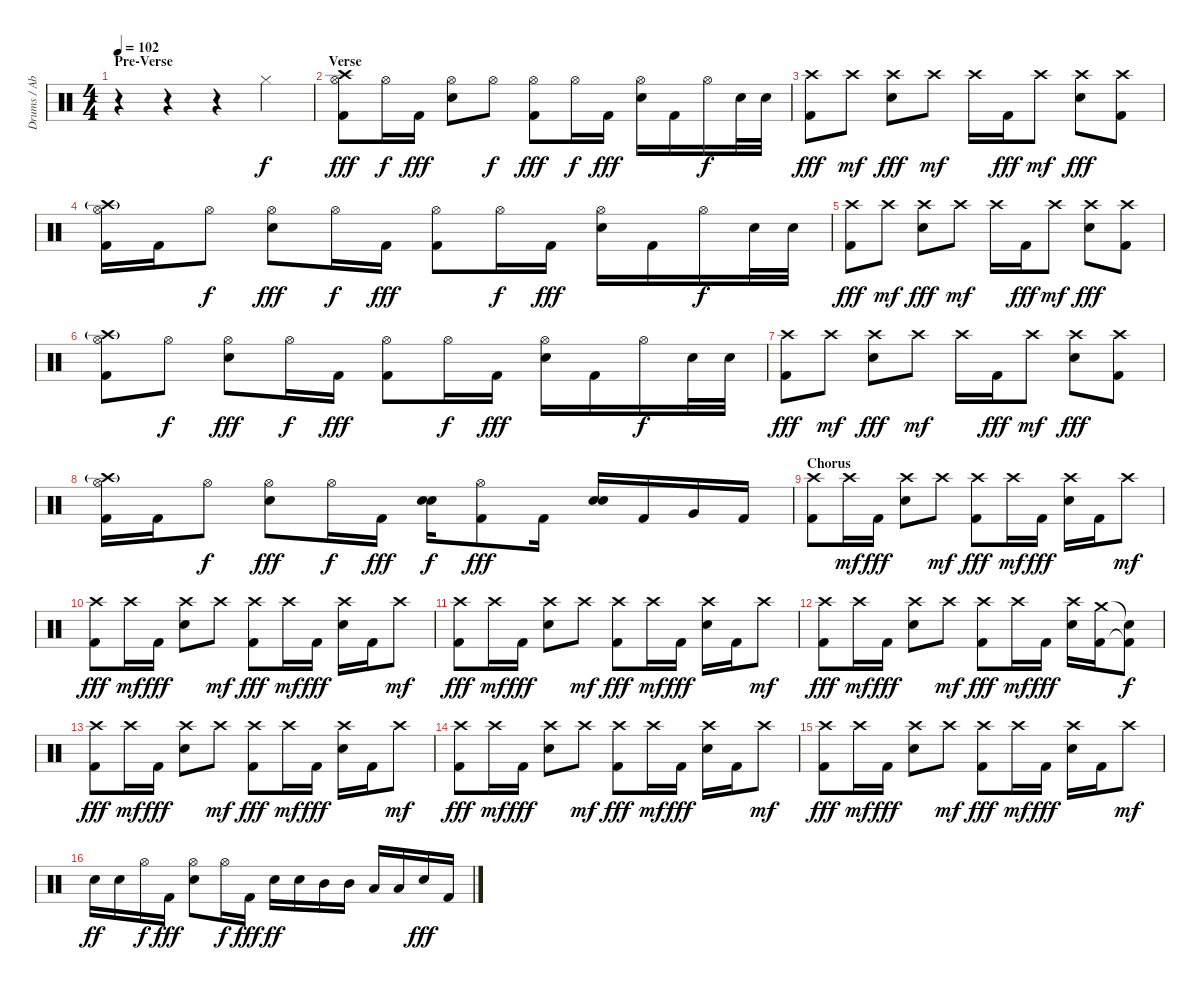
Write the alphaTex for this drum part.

\track ("Drums / Abe Cunningham" "Drums / Ab") {instrument percussion}
\staff {score}
\articulation defaults
\ts (4 4)
\section ("" "Pre-Verse")
\tempo 102
\clef neutral
\ks c
r.4{dy f} r.4 r.4 "Hi-Hat (closed)".4 |
\section ("" "Verse")
("Crash high (hit)" "Hi-Hat (open)" "Kick (hit) 2").8{dy fff} "Hi-Hat (open)".16{dy f} "Kick (hit) 2".16{dy fff} ("Hi-Hat (open)" "Electric Snare (hit)").8 "Hi-Hat (open)".8{dy f} ("Hi-Hat (open)" "Kick (hit) 2").8{dy fff} "Hi-Hat (open)".16{dy f} "Kick (hit) 2".16{dy fff} ("Hi-Hat (open)" "Electric Snare (hit)").16 "Kick (hit) 2".16 "Hi-Hat (open)".16{dy f} "Electric Snare (hit)".32 "Electric Snare (hit)".32 |
("Crash high (hit)" "Kick (hit) 2").8{dy fff} "Crash high (hit)".8{dy mf} ("Crash high (hit)" "Electric Snare (hit)").8{dy fff} "Crash high (hit)".8{dy mf} "Crash high (hit)".16 "Kick (hit) 2".16{dy fff} "Crash high (hit)".8{dy mf} ("Crash high (hit)" "Electric Snare (hit)").8{dy fff} ("Crash high (hit)" "Kick (hit) 2").8 |
("Crash high (hit)"{g} "Hi-Hat (open)" "Kick (hit) 2").16 "Kick (hit) 2".16 "Hi-Hat (open)".8{dy f} ("Hi-Hat (open)" "Electric Snare (hit)").8{dy fff} "Hi-Hat (open)".16{dy f} "Kick (hit) 2".16{dy fff} ("Hi-Hat (open)" "Kick (hit) 2").8 "Hi-Hat (open)".16{dy f} "Kick (hit) 2".16{dy fff} ("Hi-Hat (open)" "Electric Snare (hit)").16 "Kick (hit) 2".16 "Hi-Hat (open)".16{dy f} "Electric Snare (hit)".32 "Electric Snare (hit)".32 |
("Crash high (hit)" "Kick (hit) 2").8{dy fff} "Crash high (hit)".8{dy mf} ("Crash high (hit)" "Electric Snare (hit)").8{dy fff} "Crash high (hit)".8{dy mf} "Crash high (hit)".16 "Kick (hit) 2".16{dy fff} "Crash high (hit)".8{dy mf} ("Crash high (hit)" "Electric Snare (hit)").8{dy fff} ("Crash high (hit)" "Kick (hit) 2").8 |
("Crash high (hit)"{g} "Hi-Hat (open)" "Kick (hit) 2").8 "Hi-Hat (open)".8{dy f} ("Hi-Hat (open)" "Electric Snare (hit)").8{dy fff} "Hi-Hat (open)".16{dy f} "Kick (hit) 2".16{dy fff} ("Hi-Hat (open)" "Kick (hit) 2").8 "Hi-Hat (open)".16{dy f} "Kick (hit) 2".16{dy fff} ("Hi-Hat (open)" "Electric Snare (hit)").16 "Kick (hit) 2".16 "Hi-Hat (open)".16{dy f} "Electric Snare (hit)".32 "Electric Snare (hit)".32 |
("Crash high (hit)" "Kick (hit) 2").8{dy fff} "Crash high (hit)".8{dy mf} ("Crash high (hit)" "Electric Snare (hit)").8{dy fff} "Crash high (hit)".8{dy mf} "Crash high (hit)".16 "Kick (hit) 2".16{dy fff} "Crash high (hit)".8{dy mf} ("Crash high (hit)" "Electric Snare (hit)").8{dy fff} ("Crash high (hit)" "Kick (hit) 2").8 |
("Crash high (hit)"{g} "Hi-Hat (open)" "Kick (hit) 2").16 "Kick (hit) 2".16 "Hi-Hat (open)".8{dy f} ("Hi-Hat (open)" "Electric Snare (hit)").8{dy fff} "Hi-Hat (open)".16{dy f} "Kick (hit) 2".16{dy fff} ("Electric Snare (hit)" "Electric Snare (hit)").16{dy f} ("Hi-Hat (open)" "Kick (hit) 2").8{dy fff} "Kick (hit) 2".16 ("Electric Snare (hit)" "Electric Snare (hit)").16 "Kick (hit) 2".16 "Very Low Tom (hit)".16 "Kick (hit) 2".16 |
\section ("" "Chorus")
("Crash high (hit)" "Kick (hit) 2").8 "Crash high (hit)".16{dy mf} "Kick (hit) 2".16{dy fff} ("Crash high (hit)" "Electric Snare (hit)").8 "Crash high (hit)".8{dy mf} ("Crash high (hit)" "Kick (hit) 2").8{dy fff} "Crash high (hit)".16{dy mf} "Kick (hit) 2".16{dy fff} ("Crash high (hit)" "Electric Snare (hit)").16 "Kick (hit) 2".16 "Crash high (hit)".8{dy mf} |
("Crash high (hit)" "Kick (hit) 2").8{dy fff} "Crash high (hit)".16{dy mf} "Kick (hit) 2".16{dy fff} ("Crash high (hit)" "Electric Snare (hit)").8 "Crash high (hit)".8{dy mf} ("Crash high (hit)" "Kick (hit) 2").8{dy fff} "Crash high (hit)".16{dy mf} "Kick (hit) 2".16{dy fff} ("Crash high (hit)" "Electric Snare (hit)").16 "Kick (hit) 2".16 "Crash high (hit)".8{dy mf} |
("Crash high (hit)" "Kick (hit) 2").8{dy fff} "Crash high (hit)".16{dy mf} "Kick (hit) 2".16{dy fff} ("Crash high (hit)" "Electric Snare (hit)").8 "Crash high (hit)".8{dy mf} ("Crash high (hit)" "Kick (hit) 2").8{dy fff} "Crash high (hit)".16{dy mf} "Kick (hit) 2".16{dy fff} ("Crash high (hit)" "Electric Snare (hit)").16 "Kick (hit) 2".16 "Crash high (hit)".8{dy mf} |
("Crash high (hit)" "Kick (hit) 2").8{dy fff} "Crash high (hit)".16{dy mf} "Kick (hit) 2".16{dy fff} ("Crash high (hit)" "Electric Snare (hit)").8 "Crash high (hit)".8{dy mf} ("Crash high (hit)" "Kick (hit) 2").8{dy fff} "Crash high (hit)".16{dy mf} "Kick (hit) 2".16{dy fff} ("Crash high (hit)" "Electric Snare (hit)").16 ("Crash medium (hit)" "Kick (hit) 2").16 ("Snare (hit)"{t} "Kick (hit) 2"{t}).8{dy f} |
("Crash high (hit)" "Kick (hit) 2").8{dy fff} "Crash high (hit)".16{dy mf} "Kick (hit) 2".16{dy fff} ("Crash high (hit)" "Electric Snare (hit)").8 "Crash high (hit)".8{dy mf} ("Crash high (hit)" "Kick (hit) 2").8{dy fff} "Crash high (hit)".16{dy mf} "Kick (hit) 2".16{dy fff} ("Crash high (hit)" "Electric Snare (hit)").16 "Kick (hit) 2".16 "Crash high (hit)".8{dy mf} |
("Crash high (hit)" "Kick (hit) 2").8{dy fff} "Crash high (hit)".16{dy mf} "Kick (hit) 2".16{dy fff} ("Crash high (hit)" "Electric Snare (hit)").8 "Crash high (hit)".8{dy mf} ("Crash high (hit)" "Kick (hit) 2").8{dy fff} "Crash high (hit)".16{dy mf} "Kick (hit) 2".16{dy fff} ("Crash high (hit)" "Electric Snare (hit)").16 "Kick (hit) 2".16 "Crash high (hit)".8{dy mf} |
("Crash high (hit)" "Kick (hit) 2").8{dy fff} "Crash high (hit)".16{dy mf} "Kick (hit) 2".16{dy fff} ("Crash high (hit)" "Electric Snare (hit)").8 "Crash high (hit)".8{dy mf} ("Crash high (hit)" "Kick (hit) 2").8{dy fff} "Crash high (hit)".16{dy mf} "Kick (hit) 2".16{dy fff} ("Crash high (hit)" "Electric Snare (hit)").16 "Kick (hit) 2".16 "Crash high (hit)".8{dy mf} |
"Electric Snare (hit)".16{dy ff} "Electric Snare (hit)".16 "Hi-Hat (open)".16{dy f} "Kick (hit) 2".16{dy fff} ("Hi-Hat (open)" "Electric Snare (hit)").8 "Hi-Hat (open)".16{dy f} "Kick (hit) 2".16{dy fff} "Electric Snare (hit)".16{dy ff} "Electric Snare (hit)".16 "Mid Tom (hit)".16 "Mid Tom (hit)".16 "Low Tom (hit)".16 "Low Tom (hit)".16 "Electric Snare (hit)".16{dy fff} "Kick (hit) 2".16
